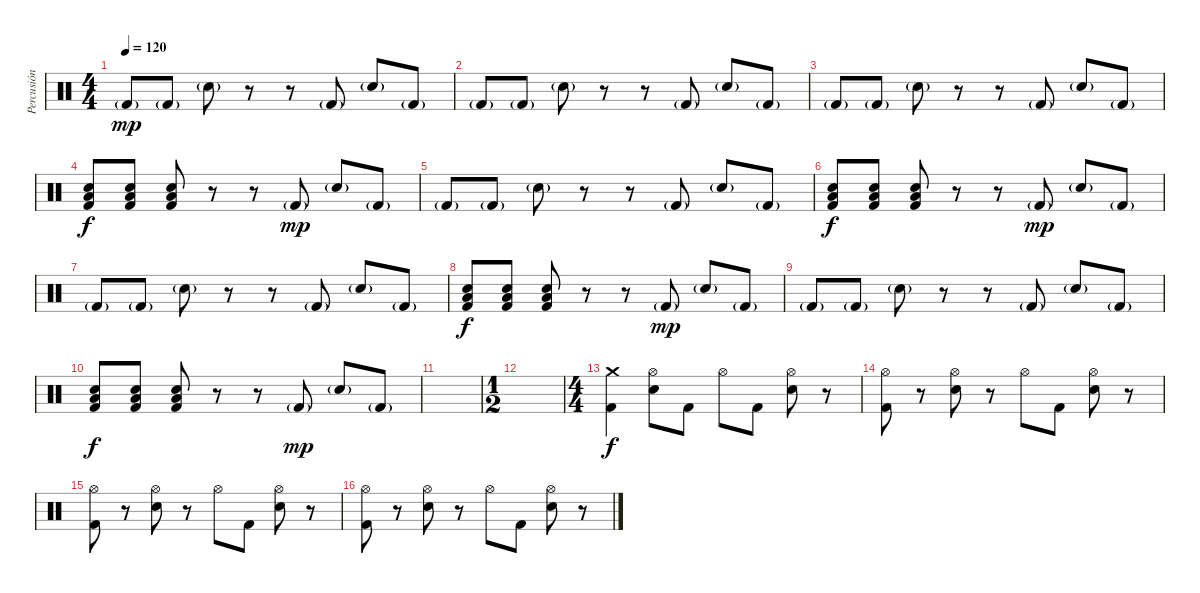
\track ("Percusión" "Percusión") {instrument percussion}
\staff {score}
\articulation defaults
\ts (4 4)
\tempo 120
\clef neutral
\ks c "Kick (hit) 2"{g}.8{dy mp} "Kick (hit) 2"{g}.8 "Electric Snare (hit)"{g}.8
r.8 r.8 "Kick (hit) 2"{g}.8 "Electric Snare (hit)"{g}.8 "Kick (hit) 2"{g}.8 |
"Kick (hit) 2"{g}.8 "Kick (hit) 2"{g}.8 "Electric Snare (hit)"{g}.8 r.8 r.8 "Kick (hit) 2"{g}.8 "Electric Snare (hit)"{g}.8 "Kick (hit) 2"{g}.8 |
"Kick (hit) 2"{g}.8 "Kick (hit) 2"{g}.8 "Electric Snare (hit)"{g}.8 r.8 r.8 "Kick (hit) 2"{g}.8 "Electric Snare (hit)"{g}.8 "Kick (hit) 2"{g}.8 |
("Electric Snare (hit)" "Low Floor Tom (hit)" "Kick (hit) 2").8{dy f} ("Electric Snare (hit)" "Low Floor Tom (hit)" "Kick (hit) 2").8 ("Electric Snare (hit)" "Low Floor Tom (hit)" "Kick (hit) 2").8 r.8 r.8 "Kick (hit) 2"{g}.8{dy mp} "Electric Snare (hit)"{g}.8 "Kick (hit) 2"{g}.8 |
"Kick (hit) 2"{g}.8 "Kick (hit) 2"{g}.8 "Electric Snare (hit)"{g}.8 r.8 r.8 "Kick (hit) 2"{g}.8 "Electric Snare (hit)"{g}.8 "Kick (hit) 2"{g}.8 |
("Electric Snare (hit)" "Low Floor Tom (hit)" "Kick (hit) 2").8{dy f} ("Electric Snare (hit)" "Low Floor Tom (hit)" "Kick (hit) 2").8 ("Electric Snare (hit)" "Low Floor Tom (hit)" "Kick (hit) 2").8 r.8 r.8 "Kick (hit) 2"{g}.8{dy mp} "Electric Snare (hit)"{g}.8 "Kick (hit) 2"{g}.8 |
"Kick (hit) 2"{g}.8 "Kick (hit) 2"{g}.8 "Electric Snare (hit)"{g}.8 r.8 r.8 "Kick (hit) 2"{g}.8 "Electric Snare (hit)"{g}.8 "Kick (hit) 2"{g}.8 |
("Electric Snare (hit)" "Low Floor Tom (hit)" "Kick (hit) 2").8{dy f} ("Electric Snare (hit)" "Low Floor Tom (hit)" "Kick (hit) 2").8 ("Electric Snare (hit)" "Low Floor Tom (hit)" "Kick (hit) 2").8 r.8 r.8 "Kick (hit) 2"{g}.8{dy mp} "Electric Snare (hit)"{g}.8 "Kick (hit) 2"{g}.8 |
"Kick (hit) 2"{g}.8 "Kick (hit) 2"{g}.8 "Electric Snare (hit)"{g}.8 r.8 r.8 "Kick (hit) 2"{g}.8 "Electric Snare (hit)"{g}.8 "Kick (hit) 2"{g}.8 |
("Electric Snare (hit)" "Low Floor Tom (hit)" "Kick (hit) 2").8{dy f} ("Electric Snare (hit)" "Low Floor Tom (hit)" "Kick (hit) 2").8 ("Electric Snare (hit)" "Low Floor Tom (hit)" "Kick (hit) 2").8 r.8 r.8 "Kick (hit) 2"{g}.8{dy mp} "Electric Snare (hit)"{g}.8 "Kick (hit) 2"{g}.8 |
|
\ts (1 2)
|
\ts (4 4)
("Crash medium (hit)" "Kick (hit) 2").4{dy f} ("Hi-Hat (open)" "Electric Snare (hit)").8 "Kick (hit) 2".8 "Hi-Hat (open)".8 "Kick (hit) 2".8 ("Hi-Hat (open)" "Electric Snare (hit)").8 r.8 |
("Hi-Hat (open)" "Kick (hit) 2").8 r.8 ("Hi-Hat (open)" "Electric Snare (hit)").8 r.8 "Hi-Hat (open)".8 "Kick (hit) 2".8 ("Hi-Hat (open)" "Electric Snare (hit)").8 r.8 |
("Hi-Hat (open)" "Kick (hit) 2").8 r.8 ("Hi-Hat (open)" "Electric Snare (hit)").8 r.8 "Hi-Hat (open)".8 "Kick (hit) 2".8 ("Hi-Hat (open)" "Electric Snare (hit)").8 r.8 |
("Hi-Hat (open)" "Kick (hit) 2").8 r.8 ("Hi-Hat (open)" "Electric Snare (hit)").8 r.8 "Hi-Hat (open)".8 "Kick (hit) 2".8 ("Hi-Hat (open)" "Electric Snare (hit)").8 r.8
